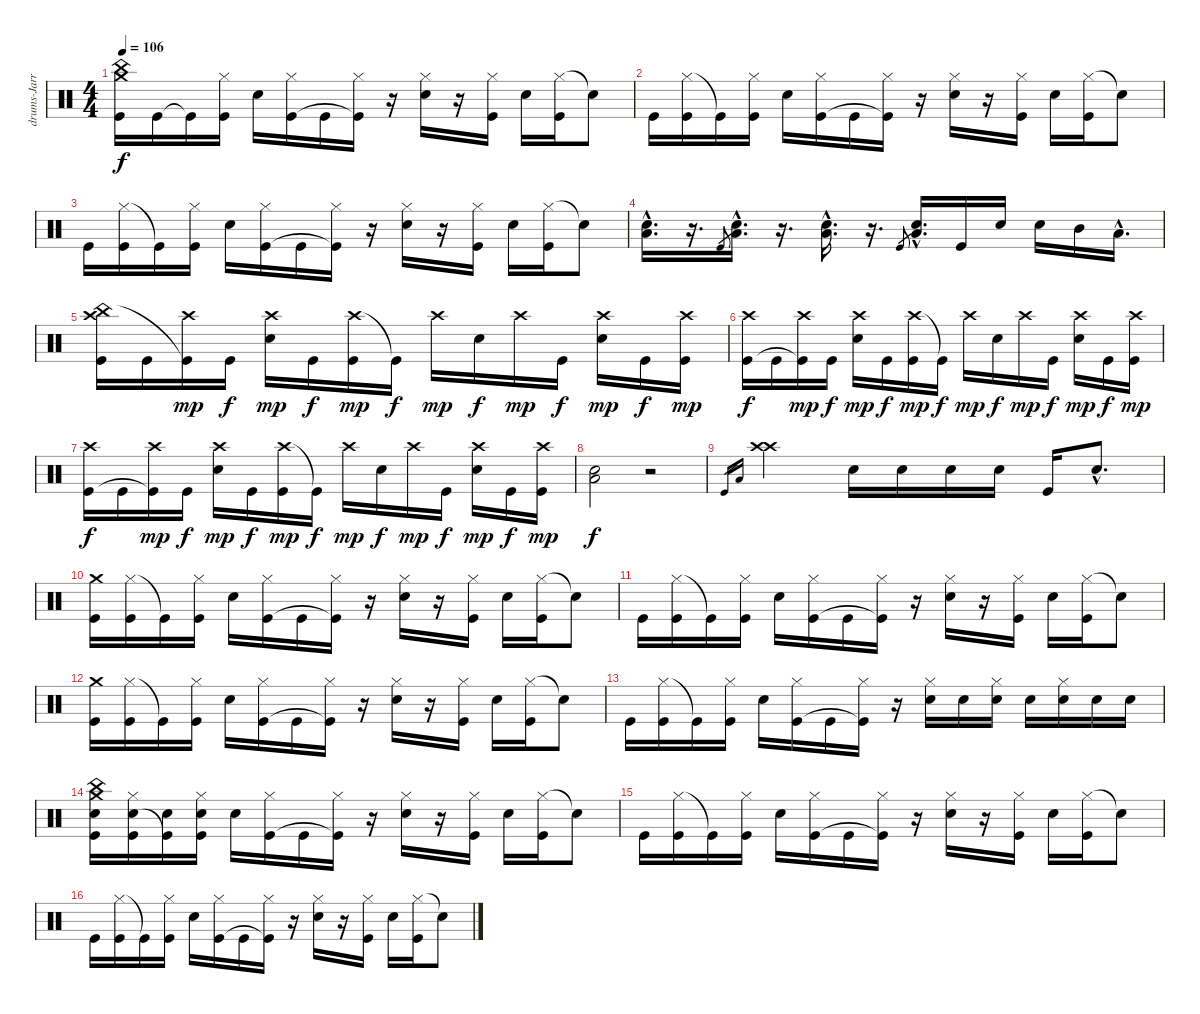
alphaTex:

\track ("drums-Jarrod Montague" "drums-Jarr") {instrument percussion}
\staff {score}
\articulation defaults
\ts (4 4)
\tempo 106
\clef neutral
\ks c
("Crash medium (hit)" "China (hit)" "Kick (hit)").16{dy f} "Kick (hit)".16 "Kick (hit)"{t}.16 ("Hi-Hat (closed)" "Kick (hit)").16 "Snare (hit) 2".16 ("Hi-Hat (closed)" "Kick (hit)").16 "Kick (hit)".16 ("Hi-Hat (closed)" "Kick (hit)"{t}).16 r.16 ("Hi-Hat (closed)" "Snare (hit) 2").16 r.16 ("Hi-Hat (closed)" "Kick (hit)").16 "Snare (hit) 2".16 ("Hi-Hat (closed)" "Kick (hit)").16 "Snare (hit)"{t}.8 |
"Kick (hit)".16 ("Hi-Hat (closed)" "Kick (hit)").16 "Kick (hit)"{t}.16 ("Hi-Hat (closed)" "Kick (hit)").16 "Snare (hit) 2".16 ("Hi-Hat (closed)" "Kick (hit)").16 "Kick (hit)".16 ("Hi-Hat (closed)" "Kick (hit)"{t}).16 r.16 ("Hi-Hat (closed)" "Snare (hit) 2").16 r.16 ("Hi-Hat (closed)" "Kick (hit)").16 "Snare (hit) 2".16 ("Hi-Hat (closed)" "Kick (hit)").16 "Snare (hit)"{t}.8 |
"Kick (hit)".16 ("Hi-Hat (closed)" "Kick (hit)").16 "Kick (hit)"{t}.16 ("Hi-Hat (closed)" "Kick (hit)").16 "Snare (hit) 2".16 ("Hi-Hat (closed)" "Kick (hit)").16 "Kick (hit)".16 ("Hi-Hat (closed)" "Kick (hit)"{t}).16 r.16 ("Hi-Hat (closed)" "Snare (hit) 2").16 r.16 ("Hi-Hat (closed)" "Kick (hit)").16 "Snare (hit) 2".16 ("Hi-Hat (closed)" "Kick (hit)").16 "Snare (hit)"{t}.8 |
("Snare (hit) 2"{hac} "Low Floor Tom (hit)"{hac}).16{d} r.16{d} "Kick (hit)".8{gr} ("Snare (hit) 2"{hac} "Low Floor Tom (hit)"{hac}).16{d} r.16{d} ("Snare (hit) 2"{hac} "Low Floor Tom (hit)"{hac}).16{d} r.16{d} "Kick (hit)".8{gr} ("Snare (hit) 2"{hac} "Low Floor Tom (hit)"{hac}).16{d} "Kick (hit)".16 "Snare (hit) 2".16 "Snare (hit) 2".16 "Mid Tom (hit)".16 "Low Tom (hit)"{hac}.16{d} |
("Crash high (hit)" "China (hit)" "Kick (hit)").16 "Kick (hit)".16 ("Crash high (hit)" "Kick (hit)"{t}).16{dy mp} "Kick (hit)".16{dy f} ("Crash high (hit)" "Snare (hit) 2").16{dy mp} "Kick (hit)".16{dy f} ("Crash high (hit)" "Kick (hit)").16{dy mp} "Kick (hit)"{t}.16{dy f} "Crash high (hit)".16{dy mp} "Snare (hit) 2".16{dy f} "Crash high (hit)".16{dy mp} "Kick (hit)".16{dy f} ("Crash high (hit)" "Snare (hit) 2").16{dy mp} "Kick (hit)".16{dy f} ("Crash high (hit)" "Kick (hit)").16{dy mp} |
("Crash high (hit)" "Kick (hit)").16{dy f} "Kick (hit)".16 ("Crash high (hit)" "Kick (hit)"{t}).16{dy mp} "Kick (hit)".16{dy f} ("Crash high (hit)" "Snare (hit) 2").16{dy mp} "Kick (hit)".16{dy f} ("Crash high (hit)" "Kick (hit)").16{dy mp} "Kick (hit)"{t}.16{dy f} "Crash high (hit)".16{dy mp} "Snare (hit) 2".16{dy f} "Crash high (hit)".16{dy mp} "Kick (hit)".16{dy f} ("Crash high (hit)" "Snare (hit) 2").16{dy mp} "Kick (hit)".16{dy f} ("Crash high (hit)" "Kick (hit)").16{dy mp} |
("Crash high (hit)" "Kick (hit)").16{dy f} "Kick (hit)".16 ("Crash high (hit)" "Kick (hit)"{t}).16{dy mp} "Kick (hit)".16{dy f} ("Crash high (hit)" "Snare (hit) 2").16{dy mp} "Kick (hit)".16{dy f} ("Crash high (hit)" "Kick (hit)").16{dy mp} "Kick (hit)"{t}.16{dy f} "Crash high (hit)".16{dy mp} "Snare (hit) 2".16{dy f} "Crash high (hit)".16{dy mp} "Kick (hit)".16{dy f} ("Crash high (hit)" "Snare (hit) 2").16{dy mp} "Kick (hit)".16{dy f} ("Crash high (hit)" "Kick (hit)").16{dy mp} |
("Snare (hit) 2" "Low Floor Tom (hit)").2{dy f} r.2 |
"Kick (hit)".16{gr} "Low Floor Tom (hit)".16{gr} ("Crash high (hit)" "Crash high (hit)").2 "Snare (hit) 2".16 "Snare (hit) 2".16 "Snare (hit) 2".16 "Snare (hit) 2".16 "Kick (hit)".16 "Snare (hit) 2"{hac}.8{d} |
("Crash medium (hit)" "Kick (hit)").16 ("Hi-Hat (closed)" "Kick (hit)").16 "Kick (hit)"{t}.16 ("Hi-Hat (closed)" "Kick (hit)").16 "Snare (hit) 2".16 ("Hi-Hat (closed)" "Kick (hit)").16 "Kick (hit)".16 ("Hi-Hat (closed)" "Kick (hit)"{t}).16 r.16 ("Hi-Hat (closed)" "Snare (hit) 2").16 r.16 ("Hi-Hat (closed)" "Kick (hit)").16 "Snare (hit) 2".16 ("Hi-Hat (closed)" "Kick (hit)").16 "Snare (hit)"{t}.8 |
"Kick (hit)".16 ("Hi-Hat (closed)" "Kick (hit)").16 "Kick (hit)"{t}.16 ("Hi-Hat (closed)" "Kick (hit)").16 "Snare (hit) 2".16 ("Hi-Hat (closed)" "Kick (hit)").16 "Kick (hit)".16 ("Hi-Hat (closed)" "Kick (hit)"{t}).16 r.16 ("Hi-Hat (closed)" "Snare (hit) 2").16 r.16 ("Hi-Hat (closed)" "Kick (hit)").16 "Snare (hit) 2".16 ("Hi-Hat (closed)" "Kick (hit)").16 "Snare (hit)"{t}.8 |
("Crash medium (hit)" "Kick (hit)").16 ("Hi-Hat (closed)" "Kick (hit)").16 "Kick (hit)"{t}.16 ("Hi-Hat (closed)" "Kick (hit)").16 "Snare (hit) 2".16 ("Hi-Hat (closed)" "Kick (hit)").16 "Kick (hit)".16 ("Hi-Hat (closed)" "Kick (hit)"{t}).16 r.16 ("Hi-Hat (closed)" "Snare (hit) 2").16 r.16 ("Hi-Hat (closed)" "Kick (hit)").16 "Snare (hit) 2".16 ("Hi-Hat (closed)" "Kick (hit)").16 "Snare (hit)"{t}.8 |
"Kick (hit)".16 ("Hi-Hat (closed)" "Kick (hit)").16 "Kick (hit)"{t}.16 ("Hi-Hat (closed)" "Kick (hit)").16 "Snare (hit) 2".16 ("Hi-Hat (closed)" "Kick (hit)").16 "Kick (hit)".16 ("Hi-Hat (closed)" "Kick (hit)"{t}).16 r.16 ("Hi-Hat (closed)" "Snare (hit) 2").16 "Snare (hit) 2".16 ("Hi-Hat (closed)" "Snare (hit) 2").16 "Snare (hit) 2".16 ("Hi-Hat (closed)" "Snare (hit) 2").16 "Snare (hit) 2".16 "Snare (hit) 2".16 |
("Crash medium (hit)" "China (hit)" "Snare (hit) 2" "Kick (hit)").16 ("Hi-Hat (closed)" "Snare (hit) 2" "Kick (hit)").16 ("Snare (hit) 2" "Kick (hit)"{t}).16 ("Hi-Hat (closed)" "Snare (hit) 2" "Kick (hit)").16 "Snare (hit) 2".16 ("Hi-Hat (closed)" "Kick (hit)").16 "Kick (hit)".16 ("Hi-Hat (closed)" "Kick (hit)"{t}).16 r.16 ("Hi-Hat (closed)" "Snare (hit) 2").16 r.16 ("Hi-Hat (closed)" "Kick (hit)").16 "Snare (hit) 2".16 ("Hi-Hat (closed)" "Kick (hit)").16 "Snare (hit)"{t}.8 |
"Kick (hit)".16 ("Hi-Hat (closed)" "Kick (hit)").16 "Kick (hit)"{t}.16 ("Hi-Hat (closed)" "Kick (hit)").16 "Snare (hit) 2".16 ("Hi-Hat (closed)" "Kick (hit)").16 "Kick (hit)".16 ("Hi-Hat (closed)" "Kick (hit)"{t}).16 r.16 ("Hi-Hat (closed)" "Snare (hit) 2").16 r.16 ("Hi-Hat (closed)" "Kick (hit)").16 "Snare (hit) 2".16 ("Hi-Hat (closed)" "Kick (hit)").16 "Snare (hit)"{t}.8 |
"Kick (hit)".16 ("Hi-Hat (closed)" "Kick (hit)").16 "Kick (hit)"{t}.16 ("Hi-Hat (closed)" "Kick (hit)").16 "Snare (hit) 2".16 ("Hi-Hat (closed)" "Kick (hit)").16 "Kick (hit)".16 ("Hi-Hat (closed)" "Kick (hit)"{t}).16 r.16 ("Hi-Hat (closed)" "Snare (hit) 2").16 r.16 ("Hi-Hat (closed)" "Kick (hit)").16 "Snare (hit) 2".16 ("Hi-Hat (closed)" "Kick (hit)").16 "Snare (hit)"{t}.8
